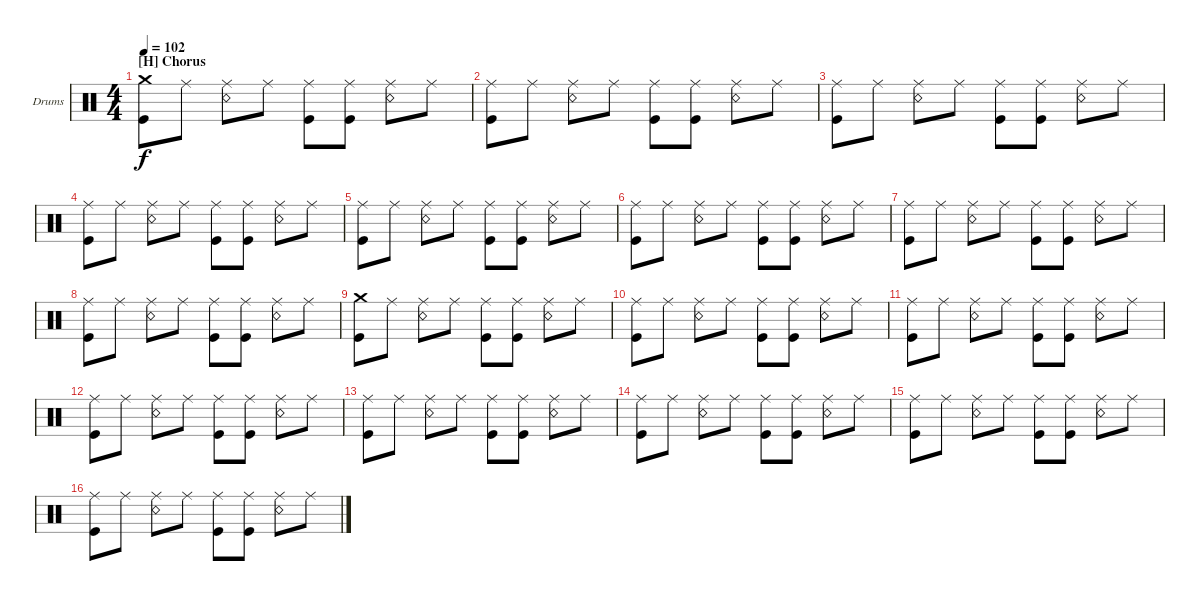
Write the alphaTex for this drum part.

\defaultSystemsLayout 4
\bracketExtendMode groupsimilarinstruments
\firstSystemTrackNameOrientation horizontal
\otherSystemsTrackNameOrientation horizontal
\track ("Drums" "Drums") {instrument percussion}
\staff {score}
\articulation defaults
\ts (4 4)
\section ("H" "Chorus")
\tempo 102
\clef neutral
\ks c
("Kick (hit)" "Crash medium (hit)").8{dy f} "Ride (middle)".8 ("Snare (rim shot)" "Ride (middle)").8 "Ride (middle)".8 ("Kick (hit)" "Ride (middle)").8 ("Kick (hit)" "Ride (middle)").8 ("Snare (rim shot)" "Ride (middle)").8 "Ride (middle)".8 |
("Ride (middle)" "Kick (hit)").8 "Ride (middle)".8 ("Ride (middle)" "Snare (rim shot)").8 "Ride (middle)".8 ("Ride (middle)" "Kick (hit)").8 ("Ride (middle)" "Kick (hit)").8 ("Ride (middle)" "Snare (rim shot)").8 "Ride (middle)".8 |
("Ride (middle)" "Kick (hit)").8 "Ride (middle)".8 ("Ride (middle)" "Snare (rim shot)").8 "Ride (middle)".8 ("Ride (middle)" "Kick (hit)").8 ("Ride (middle)" "Kick (hit)").8 ("Ride (middle)" "Snare (rim shot)").8 "Ride (middle)".8 |
("Ride (middle)" "Kick (hit)").8 "Ride (middle)".8 ("Ride (middle)" "Snare (rim shot)").8 "Ride (middle)".8 ("Ride (middle)" "Kick (hit)").8 ("Ride (middle)" "Kick (hit)").8 ("Ride (middle)" "Snare (rim shot)").8 "Ride (middle)".8 |
("Ride (middle)" "Kick (hit)").8 "Ride (middle)".8 ("Ride (middle)" "Snare (rim shot)").8 "Ride (middle)".8 ("Ride (middle)" "Kick (hit)").8 ("Ride (middle)" "Kick (hit)").8 ("Ride (middle)" "Snare (rim shot)").8 "Ride (middle)".8 |
("Ride (middle)" "Kick (hit)").8 "Ride (middle)".8 ("Ride (middle)" "Snare (rim shot)").8 "Ride (middle)".8 ("Ride (middle)" "Kick (hit)").8 ("Ride (middle)" "Kick (hit)").8 ("Ride (middle)" "Snare (rim shot)").8 "Ride (middle)".8 |
("Ride (middle)" "Kick (hit)").8 "Ride (middle)".8 ("Ride (middle)" "Snare (rim shot)").8 "Ride (middle)".8 ("Ride (middle)" "Kick (hit)").8 ("Ride (middle)" "Kick (hit)").8 ("Ride (middle)" "Snare (rim shot)").8 "Ride (middle)".8 |
("Ride (middle)" "Kick (hit)").8 "Ride (middle)".8 ("Ride (middle)" "Snare (rim shot)").8 "Ride (middle)".8 ("Ride (middle)" "Kick (hit)").8 ("Ride (middle)" "Kick (hit)").8 ("Ride (middle)" "Snare (rim shot)").8 "Ride (middle)".8 |
("Kick (hit)" "Crash medium (hit)").8 "Ride (middle)".8 ("Snare (rim shot)" "Ride (middle)").8 "Ride (middle)".8 ("Kick (hit)" "Ride (middle)").8 ("Kick (hit)" "Ride (middle)").8 ("Snare (rim shot)" "Ride (middle)").8 "Ride (middle)".8 |
("Ride (middle)" "Kick (hit)").8 "Ride (middle)".8 ("Ride (middle)" "Snare (rim shot)").8 "Ride (middle)".8 ("Ride (middle)" "Kick (hit)").8 ("Ride (middle)" "Kick (hit)").8 ("Ride (middle)" "Snare (rim shot)").8 "Ride (middle)".8 |
("Ride (middle)" "Kick (hit)").8 "Ride (middle)".8 ("Ride (middle)" "Snare (rim shot)").8 "Ride (middle)".8 ("Ride (middle)" "Kick (hit)").8 ("Ride (middle)" "Kick (hit)").8 ("Ride (middle)" "Snare (rim shot)").8 "Ride (middle)".8 |
("Ride (middle)" "Kick (hit)").8 "Ride (middle)".8 ("Ride (middle)" "Snare (rim shot)").8 "Ride (middle)".8 ("Ride (middle)" "Kick (hit)").8 ("Ride (middle)" "Kick (hit)").8 ("Ride (middle)" "Snare (rim shot)").8 "Ride (middle)".8 |
("Ride (middle)" "Kick (hit)").8 "Ride (middle)".8 ("Ride (middle)" "Snare (rim shot)").8 "Ride (middle)".8 ("Ride (middle)" "Kick (hit)").8 ("Ride (middle)" "Kick (hit)").8 ("Ride (middle)" "Snare (rim shot)").8 "Ride (middle)".8 |
("Ride (middle)" "Kick (hit)").8 "Ride (middle)".8 ("Ride (middle)" "Snare (rim shot)").8 "Ride (middle)".8 ("Ride (middle)" "Kick (hit)").8 ("Ride (middle)" "Kick (hit)").8 ("Ride (middle)" "Snare (rim shot)").8 "Ride (middle)".8 |
("Ride (middle)" "Kick (hit)").8 "Ride (middle)".8 ("Ride (middle)" "Snare (rim shot)").8 "Ride (middle)".8 ("Ride (middle)" "Kick (hit)").8 ("Ride (middle)" "Kick (hit)").8 ("Ride (middle)" "Snare (rim shot)").8 "Ride (middle)".8 |
("Ride (middle)" "Kick (hit)").8 "Ride (middle)".8 ("Ride (middle)" "Snare (rim shot)").8 "Ride (middle)".8 ("Ride (middle)" "Kick (hit)").8 ("Ride (middle)" "Kick (hit)").8 ("Ride (middle)" "Snare (rim shot)").8 "Ride (middle)".8
